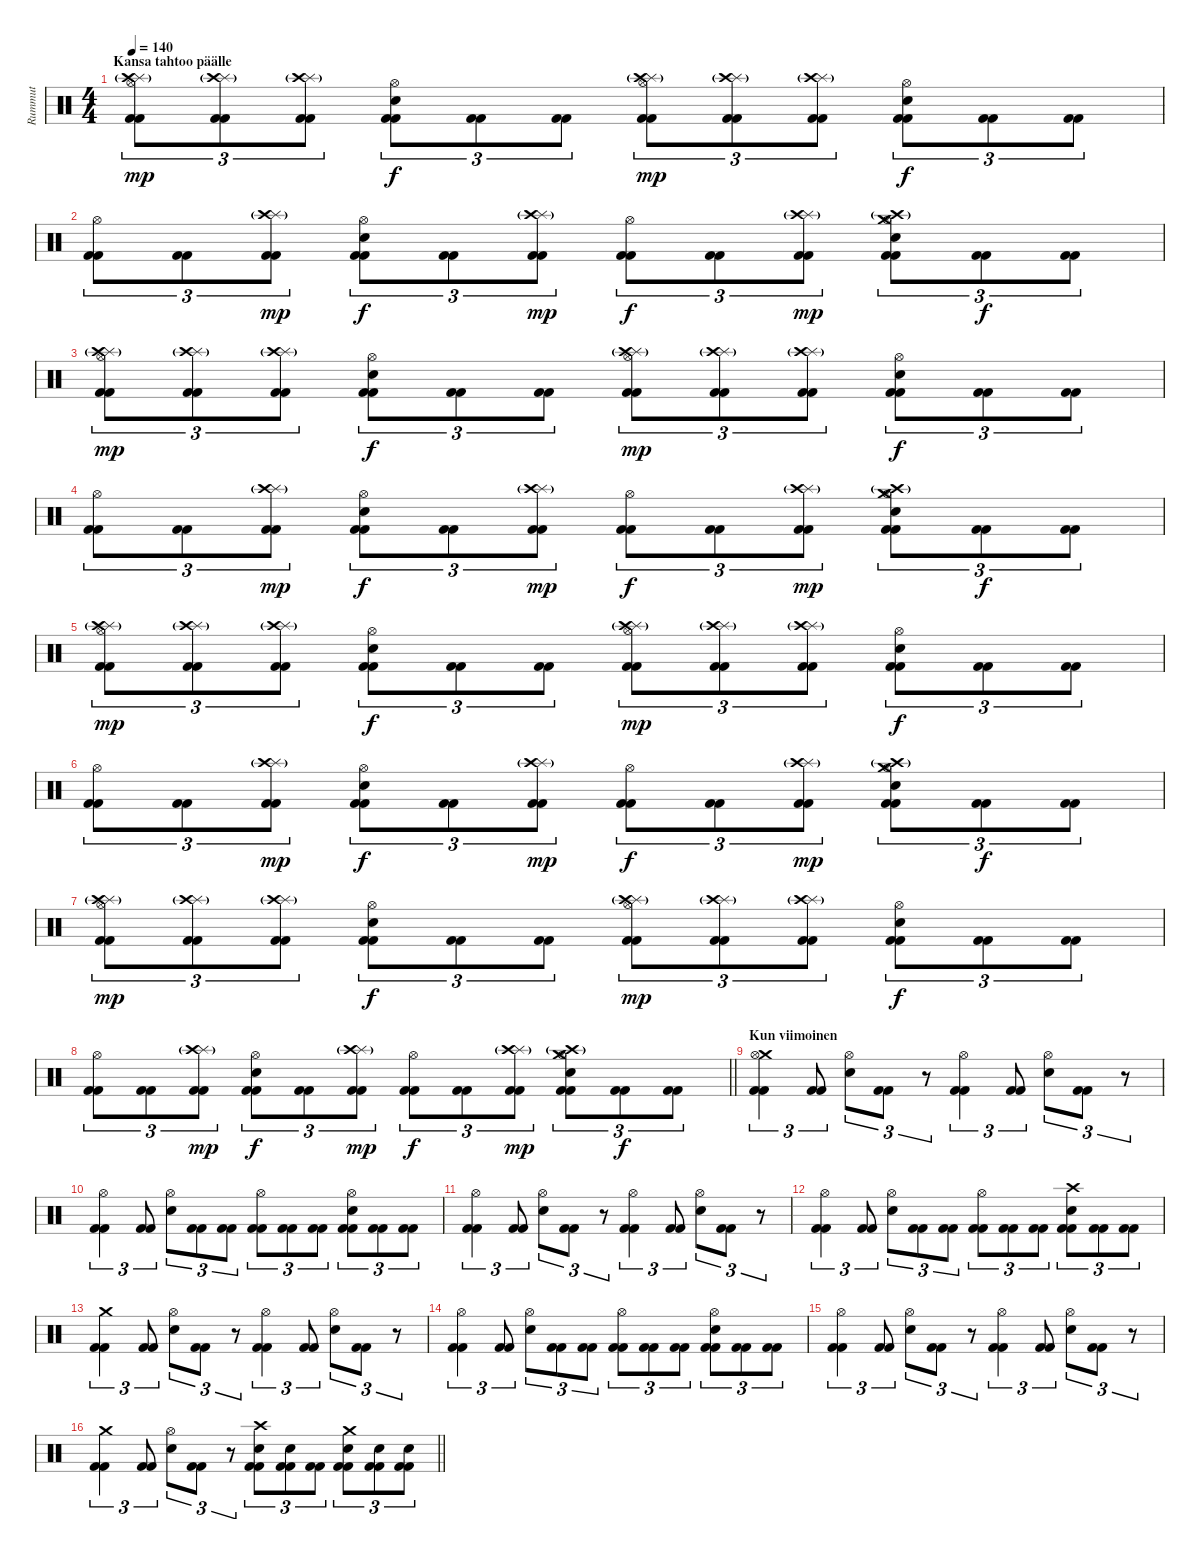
\track ("Rummut" "Rummut") {instrument percussion}
\staff {score}
\articulation defaults
\ts (4 4)
\section ("" "Kansa tahtoo päälle")
\tempo 140
\clef neutral
\ks c
("Splash (hit)" "Crash high (hit)"{g} "Hi-Hat (open)" "Kick (hit) 2" "Kick (hit) 2").8{tu (3 2) dy mp} ("Splash (hit)" "Crash high (hit)"{g} "Kick (hit) 2" "Kick (hit) 2").8{tu (3 2)} ("Splash (hit)" "Crash high (hit)"{g} "Kick (hit) 2" "Kick (hit) 2").8{tu (3 2)} ("Hi-Hat (open)" "Electric Snare (hit)" "Kick (hit) 2" "Kick (hit) 2").8{tu (3 2) dy f} ("Kick (hit) 2" "Kick (hit) 2").8{tu (3 2)} ("Kick (hit) 2" "Kick (hit) 2").8{tu (3 2)} ("Splash (hit)" "Crash high (hit)"{g} "Hi-Hat (open)" "Kick (hit) 2" "Kick (hit) 2").8{tu (3 2) dy mp} ("Splash (hit)" "Crash high (hit)"{g} "Kick (hit) 2" "Kick (hit) 2").8{tu (3 2)} ("Splash (hit)" "Crash high (hit)"{g} "Kick (hit) 2" "Kick (hit) 2").8{tu (3 2)} ("Hi-Hat (open)" "Electric Snare (hit)" "Kick (hit) 2" "Kick (hit) 2").8{tu (3 2) dy f} ("Kick (hit) 2" "Kick (hit) 2").8{tu (3 2)} ("Kick (hit) 2" "Kick (hit) 2").8{tu (3 2)} |
("Hi-Hat (open)" "Kick (hit) 2" "Kick (hit) 2").8{tu (3 2)} ("Kick (hit) 2" "Kick (hit) 2").8{tu (3 2)} ("Splash (hit)" "Crash high (hit)"{g} "Kick (hit) 2" "Kick (hit) 2").8{tu (3 2) dy mp} ("Hi-Hat (open)" "Electric Snare (hit)" "Kick (hit) 2" "Kick (hit) 2").8{tu (3 2) dy f} ("Kick (hit) 2" "Kick (hit) 2").8{tu (3 2)} ("Splash (hit)" "Crash high (hit)"{g} "Kick (hit) 2" "Kick (hit) 2").8{tu (3 2) dy mp} ("Hi-Hat (open)" "Kick (hit) 2" "Kick (hit) 2").8{tu (3 2) dy f} ("Kick (hit) 2" "Kick (hit) 2").8{tu (3 2)} ("Splash (hit)" "Crash high (hit)"{g} "Kick (hit) 2" "Kick (hit) 2").8{tu (3 2) dy mp} ("Crash medium (hit)" "Crash high (hit)"{g} "Hi-Hat (open)" "Electric Snare (hit)" "Kick (hit) 2" "Kick (hit) 2").8{tu (3 2)} ("Kick (hit) 2" "Kick (hit) 2").8{tu (3 2) dy f} ("Kick (hit) 2" "Kick (hit) 2").8{tu (3 2)} |
("Splash (hit)" "Crash high (hit)"{g} "Hi-Hat (open)" "Kick (hit) 2" "Kick (hit) 2").8{tu (3 2) dy mp} ("Splash (hit)" "Crash high (hit)"{g} "Kick (hit) 2" "Kick (hit) 2").8{tu (3 2)} ("Splash (hit)" "Crash high (hit)"{g} "Kick (hit) 2" "Kick (hit) 2").8{tu (3 2)} ("Hi-Hat (open)" "Electric Snare (hit)" "Kick (hit) 2" "Kick (hit) 2").8{tu (3 2) dy f} ("Kick (hit) 2" "Kick (hit) 2").8{tu (3 2)} ("Kick (hit) 2" "Kick (hit) 2").8{tu (3 2)} ("Splash (hit)" "Crash high (hit)"{g} "Hi-Hat (open)" "Kick (hit) 2" "Kick (hit) 2").8{tu (3 2) dy mp} ("Splash (hit)" "Crash high (hit)"{g} "Kick (hit) 2" "Kick (hit) 2").8{tu (3 2)} ("Splash (hit)" "Crash high (hit)"{g} "Kick (hit) 2" "Kick (hit) 2").8{tu (3 2)} ("Hi-Hat (open)" "Electric Snare (hit)" "Kick (hit) 2" "Kick (hit) 2").8{tu (3 2) dy f} ("Kick (hit) 2" "Kick (hit) 2").8{tu (3 2)} ("Kick (hit) 2" "Kick (hit) 2").8{tu (3 2)} |
("Hi-Hat (open)" "Kick (hit) 2" "Kick (hit) 2").8{tu (3 2)} ("Kick (hit) 2" "Kick (hit) 2").8{tu (3 2)} ("Splash (hit)" "Crash high (hit)"{g} "Kick (hit) 2" "Kick (hit) 2").8{tu (3 2) dy mp} ("Hi-Hat (open)" "Electric Snare (hit)" "Kick (hit) 2" "Kick (hit) 2").8{tu (3 2) dy f} ("Kick (hit) 2" "Kick (hit) 2").8{tu (3 2)} ("Splash (hit)" "Crash high (hit)"{g} "Kick (hit) 2" "Kick (hit) 2").8{tu (3 2) dy mp} ("Hi-Hat (open)" "Kick (hit) 2" "Kick (hit) 2").8{tu (3 2) dy f} ("Kick (hit) 2" "Kick (hit) 2").8{tu (3 2)} ("Splash (hit)" "Crash high (hit)"{g} "Kick (hit) 2" "Kick (hit) 2").8{tu (3 2) dy mp} ("Crash medium (hit)" "Crash high (hit)"{g} "Hi-Hat (open)" "Electric Snare (hit)" "Kick (hit) 2" "Kick (hit) 2").8{tu (3 2)} ("Kick (hit) 2" "Kick (hit) 2").8{tu (3 2) dy f} ("Kick (hit) 2" "Kick (hit) 2").8{tu (3 2)} |
("Splash (hit)" "Crash high (hit)"{g} "Hi-Hat (open)" "Kick (hit) 2" "Kick (hit) 2").8{tu (3 2) dy mp} ("Splash (hit)" "Crash high (hit)"{g} "Kick (hit) 2" "Kick (hit) 2").8{tu (3 2)} ("Splash (hit)" "Crash high (hit)"{g} "Kick (hit) 2" "Kick (hit) 2").8{tu (3 2)} ("Hi-Hat (open)" "Electric Snare (hit)" "Kick (hit) 2" "Kick (hit) 2").8{tu (3 2) dy f} ("Kick (hit) 2" "Kick (hit) 2").8{tu (3 2)} ("Kick (hit) 2" "Kick (hit) 2").8{tu (3 2)} ("Splash (hit)" "Crash high (hit)"{g} "Hi-Hat (open)" "Kick (hit) 2" "Kick (hit) 2").8{tu (3 2) dy mp} ("Splash (hit)" "Crash high (hit)"{g} "Kick (hit) 2" "Kick (hit) 2").8{tu (3 2)} ("Splash (hit)" "Crash high (hit)"{g} "Kick (hit) 2" "Kick (hit) 2").8{tu (3 2)} ("Hi-Hat (open)" "Electric Snare (hit)" "Kick (hit) 2" "Kick (hit) 2").8{tu (3 2) dy f} ("Kick (hit) 2" "Kick (hit) 2").8{tu (3 2)} ("Kick (hit) 2" "Kick (hit) 2").8{tu (3 2)} |
("Hi-Hat (open)" "Kick (hit) 2" "Kick (hit) 2").8{tu (3 2)} ("Kick (hit) 2" "Kick (hit) 2").8{tu (3 2)} ("Splash (hit)" "Crash high (hit)"{g} "Kick (hit) 2" "Kick (hit) 2").8{tu (3 2) dy mp} ("Hi-Hat (open)" "Electric Snare (hit)" "Kick (hit) 2" "Kick (hit) 2").8{tu (3 2) dy f} ("Kick (hit) 2" "Kick (hit) 2").8{tu (3 2)} ("Splash (hit)" "Crash high (hit)"{g} "Kick (hit) 2" "Kick (hit) 2").8{tu (3 2) dy mp} ("Hi-Hat (open)" "Kick (hit) 2" "Kick (hit) 2").8{tu (3 2) dy f} ("Kick (hit) 2" "Kick (hit) 2").8{tu (3 2)} ("Splash (hit)" "Crash high (hit)"{g} "Kick (hit) 2" "Kick (hit) 2").8{tu (3 2) dy mp} ("Crash medium (hit)" "Crash high (hit)"{g} "Hi-Hat (open)" "Electric Snare (hit)" "Kick (hit) 2" "Kick (hit) 2").8{tu (3 2)} ("Kick (hit) 2" "Kick (hit) 2").8{tu (3 2) dy f} ("Kick (hit) 2" "Kick (hit) 2").8{tu (3 2)} |
("Splash (hit)" "Crash high (hit)"{g} "Hi-Hat (open)" "Kick (hit) 2" "Kick (hit) 2").8{tu (3 2) dy mp} ("Splash (hit)" "Crash high (hit)"{g} "Kick (hit) 2" "Kick (hit) 2").8{tu (3 2)} ("Splash (hit)" "Crash high (hit)"{g} "Kick (hit) 2" "Kick (hit) 2").8{tu (3 2)} ("Hi-Hat (open)" "Electric Snare (hit)" "Kick (hit) 2" "Kick (hit) 2").8{tu (3 2) dy f} ("Kick (hit) 2" "Kick (hit) 2").8{tu (3 2)} ("Kick (hit) 2" "Kick (hit) 2").8{tu (3 2)} ("Splash (hit)" "Crash high (hit)"{g} "Hi-Hat (open)" "Kick (hit) 2" "Kick (hit) 2").8{tu (3 2) dy mp} ("Splash (hit)" "Crash high (hit)"{g} "Kick (hit) 2" "Kick (hit) 2").8{tu (3 2)} ("Splash (hit)" "Crash high (hit)"{g} "Kick (hit) 2" "Kick (hit) 2").8{tu (3 2)} ("Hi-Hat (open)" "Electric Snare (hit)" "Kick (hit) 2" "Kick (hit) 2").8{tu (3 2) dy f} ("Kick (hit) 2" "Kick (hit) 2").8{tu (3 2)} ("Kick (hit) 2" "Kick (hit) 2").8{tu (3 2)} |
\barLineRight lightlight
("Hi-Hat (open)" "Kick (hit) 2" "Kick (hit) 2").8{tu (3 2)} ("Kick (hit) 2" "Kick (hit) 2").8{tu (3 2)} ("Splash (hit)" "Crash high (hit)"{g} "Kick (hit) 2" "Kick (hit) 2").8{tu (3 2) dy mp} ("Hi-Hat (open)" "Electric Snare (hit)" "Kick (hit) 2" "Kick (hit) 2").8{tu (3 2) dy f} ("Kick (hit) 2" "Kick (hit) 2").8{tu (3 2)} ("Splash (hit)" "Crash high (hit)"{g} "Kick (hit) 2" "Kick (hit) 2").8{tu (3 2) dy mp} ("Hi-Hat (open)" "Kick (hit) 2" "Kick (hit) 2").8{tu (3 2) dy f} ("Kick (hit) 2" "Kick (hit) 2").8{tu (3 2)} ("Splash (hit)" "Crash high (hit)"{g} "Kick (hit) 2" "Kick (hit) 2").8{tu (3 2) dy mp} ("Crash medium (hit)" "Crash high (hit)"{g} "Hi-Hat (open)" "Electric Snare (hit)" "Kick (hit) 2" "Kick (hit) 2").8{tu (3 2)} ("Kick (hit) 2" "Kick (hit) 2").8{tu (3 2) dy f} ("Kick (hit) 2" "Kick (hit) 2").8{tu (3 2)} |
\section ("" "Kun viimoinen")
("Crash medium (hit)" "Hi-Hat (open)" "Kick (hit) 2" "Kick (hit) 2").4{tu (3 2)} ("Kick (hit) 2" "Kick (hit) 2").8{tu (3 2)} ("Hi-Hat (open)" "Electric Snare (hit)").8{tu (3 2)} ("Kick (hit) 2" "Kick (hit) 2").8{tu (3 2)} r.8{tu (3 2)} ("Hi-Hat (open)" "Kick (hit) 2" "Kick (hit) 2").4{tu (3 2)} ("Kick (hit) 2" "Kick (hit) 2").8{tu (3 2)} ("Hi-Hat (open)" "Electric Snare (hit)").8{tu (3 2)} ("Kick (hit) 2" "Kick (hit) 2").8{tu (3 2)} r.8{tu (3 2)} |
("Hi-Hat (open)" "Kick (hit) 2" "Kick (hit) 2").4{tu (3 2)} ("Kick (hit) 2" "Kick (hit) 2").8{tu (3 2)} ("Hi-Hat (open)" "Electric Snare (hit)").8{tu (3 2)} ("Kick (hit) 2" "Kick (hit) 2").8{tu (3 2)} ("Kick (hit) 2" "Kick (hit) 2").8{tu (3 2)} ("Hi-Hat (open)" "Kick (hit) 2" "Kick (hit) 2").8{tu (3 2)} ("Kick (hit) 2" "Kick (hit) 2").8{tu (3 2)} ("Kick (hit) 2" "Kick (hit) 2").8{tu (3 2)} ("Hi-Hat (open)" "Electric Snare (hit)" "Kick (hit) 2" "Kick (hit) 2").8{tu (3 2)} ("Kick (hit) 2" "Kick (hit) 2").8{tu (3 2)} ("Kick (hit) 2" "Kick (hit) 2").8{tu (3 2)} |
("Hi-Hat (open)" "Kick (hit) 2" "Kick (hit) 2").4{tu (3 2)} ("Kick (hit) 2" "Kick (hit) 2").8{tu (3 2)} ("Hi-Hat (open)" "Electric Snare (hit)").8{tu (3 2)} ("Kick (hit) 2" "Kick (hit) 2").8{tu (3 2)} r.8{tu (3 2)} ("Hi-Hat (open)" "Kick (hit) 2" "Kick (hit) 2").4{tu (3 2)} ("Kick (hit) 2" "Kick (hit) 2").8{tu (3 2)} ("Hi-Hat (open)" "Electric Snare (hit)").8{tu (3 2)} ("Kick (hit) 2" "Kick (hit) 2").8{tu (3 2)} r.8{tu (3 2)} |
("Hi-Hat (open)" "Kick (hit) 2" "Kick (hit) 2").4{tu (3 2)} ("Kick (hit) 2" "Kick (hit) 2").8{tu (3 2)} ("Hi-Hat (open)" "Electric Snare (hit)").8{tu (3 2)} ("Kick (hit) 2" "Kick (hit) 2").8{tu (3 2)} ("Kick (hit) 2" "Kick (hit) 2").8{tu (3 2)} ("Hi-Hat (open)" "Kick (hit) 2" "Kick (hit) 2").8{tu (3 2)} ("Kick (hit) 2" "Kick (hit) 2").8{tu (3 2)} ("Kick (hit) 2" "Kick (hit) 2").8{tu (3 2)} ("Crash high (hit)" "Electric Snare (hit)" "Kick (hit) 2" "Kick (hit) 2").8{tu (3 2)} ("Kick (hit) 2" "Kick (hit) 2").8{tu (3 2)} ("Kick (hit) 2" "Kick (hit) 2").8{tu (3 2)} |
("Crash medium (hit)" "Kick (hit) 2" "Kick (hit) 2").4{tu (3 2)} ("Kick (hit) 2" "Kick (hit) 2").8{tu (3 2)} ("Hi-Hat (open)" "Electric Snare (hit)").8{tu (3 2)} ("Kick (hit) 2" "Kick (hit) 2").8{tu (3 2)} r.8{tu (3 2)} ("Hi-Hat (open)" "Kick (hit) 2" "Kick (hit) 2").4{tu (3 2)} ("Kick (hit) 2" "Kick (hit) 2").8{tu (3 2)} ("Hi-Hat (open)" "Electric Snare (hit)").8{tu (3 2)} ("Kick (hit) 2" "Kick (hit) 2").8{tu (3 2)} r.8{tu (3 2)} |
("Hi-Hat (open)" "Kick (hit) 2" "Kick (hit) 2").4{tu (3 2)} ("Kick (hit) 2" "Kick (hit) 2").8{tu (3 2)} ("Hi-Hat (open)" "Electric Snare (hit)").8{tu (3 2)} ("Kick (hit) 2" "Kick (hit) 2").8{tu (3 2)} ("Kick (hit) 2" "Kick (hit) 2").8{tu (3 2)} ("Hi-Hat (open)" "Kick (hit) 2" "Kick (hit) 2").8{tu (3 2)} ("Kick (hit) 2" "Kick (hit) 2").8{tu (3 2)} ("Kick (hit) 2" "Kick (hit) 2").8{tu (3 2)} ("Hi-Hat (open)" "Electric Snare (hit)" "Kick (hit) 2" "Kick (hit) 2").8{tu (3 2)} ("Kick (hit) 2" "Kick (hit) 2").8{tu (3 2)} ("Kick (hit) 2" "Kick (hit) 2").8{tu (3 2)} |
("Hi-Hat (open)" "Kick (hit) 2" "Kick (hit) 2").4{tu (3 2)} ("Kick (hit) 2" "Kick (hit) 2").8{tu (3 2)} ("Hi-Hat (open)" "Electric Snare (hit)").8{tu (3 2)} ("Kick (hit) 2" "Kick (hit) 2").8{tu (3 2)} r.8{tu (3 2)} ("Hi-Hat (open)" "Kick (hit) 2" "Kick (hit) 2").4{tu (3 2)} ("Kick (hit) 2" "Kick (hit) 2").8{tu (3 2)} ("Hi-Hat (open)" "Electric Snare (hit)").8{tu (3 2)} ("Kick (hit) 2" "Kick (hit) 2").8{tu (3 2)} r.8{tu (3 2)} |
\barLineRight lightlight
("Crash medium (hit)" "Kick (hit) 2" "Kick (hit) 2").4{tu (3 2)} ("Kick (hit) 2" "Kick (hit) 2").8{tu (3 2)} ("Hi-Hat (open)" "Electric Snare (hit)").8{tu (3 2)} ("Kick (hit) 2" "Kick (hit) 2").8{tu (3 2)} r.8{tu (3 2)} ("Crash high (hit)" "Electric Snare (hit)" "Kick (hit) 2" "Kick (hit) 2").8{tu (3 2)} ("Electric Snare (hit)" "Kick (hit) 2" "Kick (hit) 2").8{tu (3 2)} ("Kick (hit) 2" "Kick (hit) 2").8{tu (3 2)} ("Crash medium (hit)" "Electric Snare (hit)" "Kick (hit) 2" "Kick (hit) 2").8{tu (3 2)} ("Electric Snare (hit)" "Kick (hit) 2" "Kick (hit) 2").8{tu (3 2)} ("Electric Snare (hit)" "Kick (hit) 2" "Kick (hit) 2").8{tu (3 2)}
